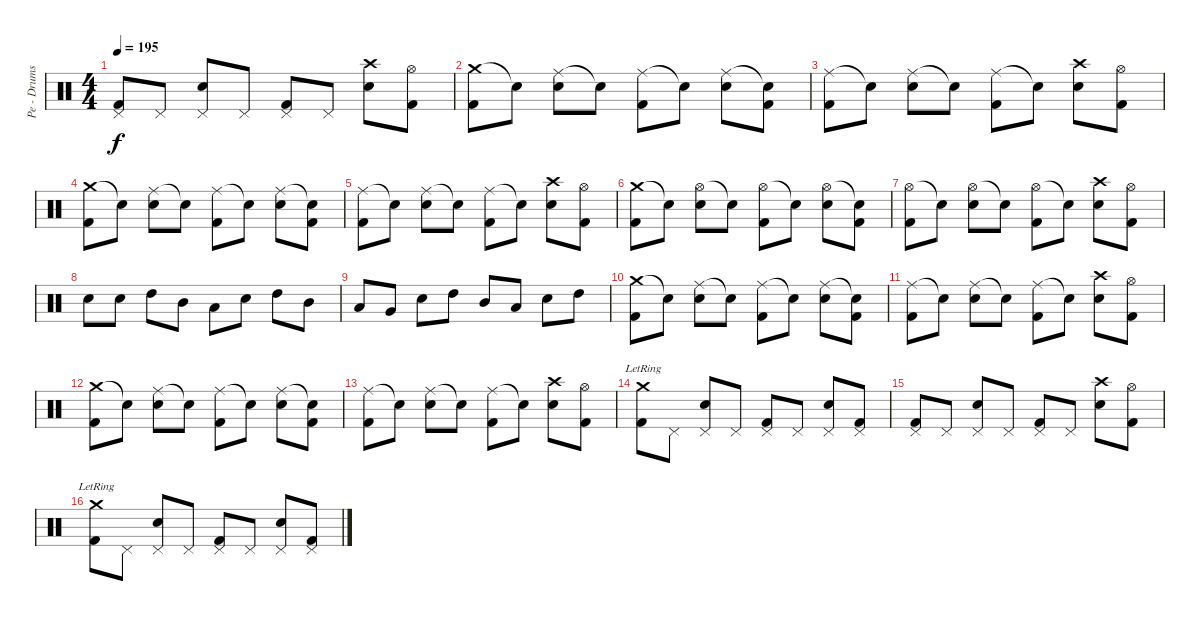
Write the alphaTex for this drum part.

\track ("Pe - Drums" "Pe - Drums") {instrument percussion}
\staff {score}
\articulation defaults
\ts (4 4)
\tempo 195
\clef neutral
\ks c
("Pedal Hi-Hat (hit)" "Kick (hit) 2").8{dy f} "Pedal Hi-Hat (hit)".8 ("Pedal Hi-Hat (hit)" "Electric Snare (hit)").8 "Pedal Hi-Hat (hit)".8 ("Pedal Hi-Hat (hit)" "Kick (hit) 2").8 "Pedal Hi-Hat (hit)".8 ("Crash high (hit)" "Electric Snare (hit)").8 ("Hi-Hat (open)" "Kick (hit) 2").8 |
("Crash medium (hit)" "Kick (hit) 2").8 "Snare (hit)"{t}.8 ("Ride (middle)" "Electric Snare (hit)").8 "Snare (hit)"{t}.8 ("Ride (middle)" "Kick (hit) 2").8 "Snare (hit)"{t}.8 ("Ride (middle)" "Electric Snare (hit)").8 ("Snare (hit)"{t} "Kick (hit) 2").8 |
("Ride (middle)" "Kick (hit) 2").8 "Snare (hit)"{t}.8 ("Ride (middle)" "Electric Snare (hit)").8 "Snare (hit)"{t}.8 ("Ride (middle)" "Kick (hit) 2").8 "Snare (hit)"{t}.8 ("Crash high (hit)" "Electric Snare (hit)").8 ("Hi-Hat (open)" "Kick (hit) 2").8 |
("Crash medium (hit)" "Kick (hit) 2").8 "Snare (hit)"{t}.8 ("Ride (middle)" "Electric Snare (hit)").8 "Snare (hit)"{t}.8 ("Ride (middle)" "Kick (hit) 2").8 "Snare (hit)"{t}.8 ("Ride (middle)" "Electric Snare (hit)").8 ("Snare (hit)"{t} "Kick (hit) 2").8 |
("Ride (middle)" "Kick (hit) 2").8 "Snare (hit)"{t}.8 ("Ride (middle)" "Electric Snare (hit)").8 "Snare (hit)"{t}.8 ("Ride (middle)" "Kick (hit) 2").8 "Snare (hit)"{t}.8 ("Crash high (hit)" "Electric Snare (hit)").8 ("Hi-Hat (open)" "Kick (hit) 2").8 |
("Crash medium (hit)" "Kick (hit) 2").8 "Snare (hit)"{t}.8 ("Hi-Hat (open)" "Electric Snare (hit)").8 "Snare (hit)"{t}.8 ("Hi-Hat (open)" "Kick (hit) 2").8 "Snare (hit)"{t}.8 ("Hi-Hat (open)" "Electric Snare (hit)").8 ("Snare (hit)"{t} "Kick (hit) 2").8 |
("Hi-Hat (open)" "Kick (hit) 2").8 "Snare (hit)"{t}.8 ("Hi-Hat (open)" "Electric Snare (hit)").8 "Snare (hit)"{t}.8 ("Hi-Hat (open)" "Kick (hit) 2").8 "Snare (hit)"{t}.8 ("Crash high (hit)" "Electric Snare (hit)").8 ("Hi-Hat (open)" "Kick (hit) 2").8 |
"Electric Snare (hit)".8 "Electric Snare (hit)".8 "High Tom (hit)".8 "Mid Tom (hit)".8 "Low Tom (hit)".8 "Electric Snare (hit)".8 "High Tom (hit)".8 "Mid Tom (hit)".8 |
"Low Tom (hit)".8 "Very Low Tom (hit)".8 "Electric Snare (hit)".8 "High Tom (hit)".8 "Mid Tom (hit)".8 "Low Tom (hit)".8 "Electric Snare (hit)".8 "High Tom (hit)".8 |
("Crash medium (hit)" "Kick (hit) 2").8 "Snare (hit)"{t}.8 ("Ride (middle)" "Electric Snare (hit)").8 "Snare (hit)"{t}.8 ("Ride (middle)" "Kick (hit) 2").8 "Snare (hit)"{t}.8 ("Ride (middle)" "Electric Snare (hit)").8 ("Snare (hit)"{t} "Kick (hit) 2").8 |
("Ride (middle)" "Kick (hit) 2").8 "Snare (hit)"{t}.8 ("Ride (middle)" "Electric Snare (hit)").8 "Snare (hit)"{t}.8 ("Ride (middle)" "Kick (hit) 2").8 "Snare (hit)"{t}.8 ("Crash high (hit)" "Electric Snare (hit)").8 ("Hi-Hat (open)" "Kick (hit) 2").8 |
("Crash medium (hit)" "Kick (hit) 2").8 "Snare (hit)"{t}.8 ("Ride (middle)" "Electric Snare (hit)").8 "Snare (hit)"{t}.8 ("Ride (middle)" "Kick (hit) 2").8 "Snare (hit)"{t}.8 ("Ride (middle)" "Electric Snare (hit)").8 ("Snare (hit)"{t} "Kick (hit) 2").8 |
("Ride (middle)" "Kick (hit) 2").8 "Snare (hit)"{t}.8 ("Ride (middle)" "Electric Snare (hit)").8 "Snare (hit)"{t}.8 ("Ride (middle)" "Kick (hit) 2").8 "Snare (hit)"{t}.8 ("Crash high (hit)" "Electric Snare (hit)").8 ("Hi-Hat (open)" "Kick (hit) 2").8 |
("Crash medium (hit)"{lr} "Kick (hit) 2").8 "Pedal Hi-Hat (hit)".8 ("Pedal Hi-Hat (hit)" "Electric Snare (hit)").8 "Pedal Hi-Hat (hit)".8 ("Pedal Hi-Hat (hit)" "Kick (hit) 2").8 "Pedal Hi-Hat (hit)".8 ("Pedal Hi-Hat (hit)" "Electric Snare (hit)").8 ("Pedal Hi-Hat (hit)" "Kick (hit) 2").8 |
("Pedal Hi-Hat (hit)" "Kick (hit) 2").8 "Pedal Hi-Hat (hit)".8 ("Pedal Hi-Hat (hit)" "Electric Snare (hit)").8 "Pedal Hi-Hat (hit)".8 ("Pedal Hi-Hat (hit)" "Kick (hit) 2").8 "Pedal Hi-Hat (hit)".8 ("Crash high (hit)" "Electric Snare (hit)").8 ("Hi-Hat (open)" "Kick (hit) 2").8 |
("Crash medium (hit)"{lr} "Kick (hit) 2").8 "Pedal Hi-Hat (hit)".8 ("Pedal Hi-Hat (hit)" "Electric Snare (hit)").8 "Pedal Hi-Hat (hit)".8 ("Pedal Hi-Hat (hit)" "Kick (hit) 2").8 "Pedal Hi-Hat (hit)".8 ("Pedal Hi-Hat (hit)" "Electric Snare (hit)").8 ("Pedal Hi-Hat (hit)" "Kick (hit) 2").8
